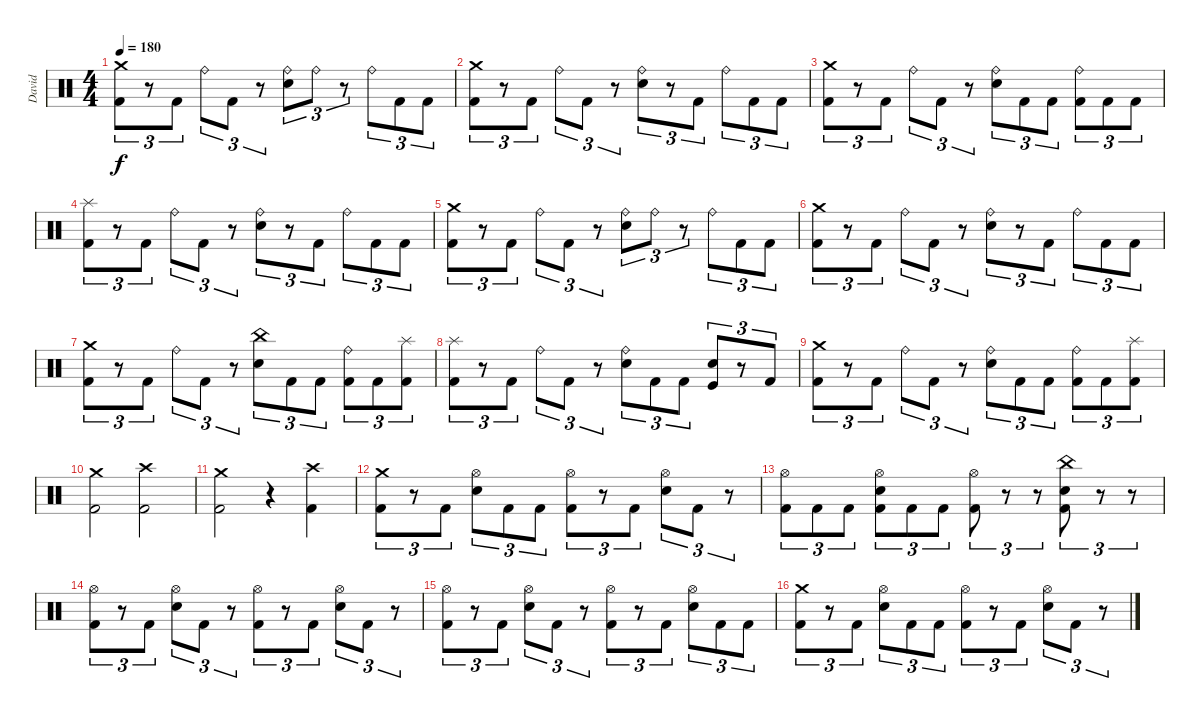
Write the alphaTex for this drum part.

\track ("David" "David") {instrument percussion}
\staff {score}
\articulation defaults
\ts (4 4)
\tempo 180
\clef neutral
\ks c
("Crash medium (hit)" "Kick (hit) 2").8{tu (3 2) dy f} r.8{tu (3 2)} "Kick (hit) 2".8{tu (3 2)} "Ride (bell)".8{tu (3 2)} "Kick (hit) 2".8{tu (3 2)} r.8{tu (3 2)} ("Ride (bell)" "Electric Snare (hit)").8{tu (3 2)} "Ride (bell)".8{tu (3 2)} r.8{tu (3 2)} "Ride (bell)".8{tu (3 2)} "Kick (hit) 2".8{tu (3 2)} "Kick (hit) 2".8{tu (3 2)} |
("Crash medium (hit)" "Kick (hit) 2").8{tu (3 2)} r.8{tu (3 2)} "Kick (hit) 2".8{tu (3 2)} "Ride (bell)".8{tu (3 2)} "Kick (hit) 2".8{tu (3 2)} r.8{tu (3 2)} ("Ride (bell)" "Electric Snare (hit)").8{tu (3 2)} r.8{tu (3 2)} "Kick (hit) 2".8{tu (3 2)} "Ride (bell)".8{tu (3 2)} "Kick (hit) 2".8{tu (3 2)} "Kick (hit) 2".8{tu (3 2)} |
("Crash medium (hit)" "Kick (hit) 2").8{tu (3 2)} r.8{tu (3 2)} "Kick (hit) 2".8{tu (3 2)} "Ride (bell)".8{tu (3 2)} "Kick (hit) 2".8{tu (3 2)} r.8{tu (3 2)} ("Ride (bell)" "Electric Snare (hit)").8{tu (3 2)} "Kick (hit) 2".8{tu (3 2)} "Kick (hit) 2".8{tu (3 2)} ("Ride (bell)" "Kick (hit) 2").8{tu (3 2)} "Kick (hit) 2".8{tu (3 2)} "Kick (hit) 2".8{tu (3 2)} |
("Splash (hit)" "Kick (hit) 2").8{tu (3 2)} r.8{tu (3 2)} "Kick (hit) 2".8{tu (3 2)} "Ride (bell)".8{tu (3 2)} "Kick (hit) 2".8{tu (3 2)} r.8{tu (3 2)} ("Ride (bell)" "Electric Snare (hit)").8{tu (3 2)} r.8{tu (3 2)} "Kick (hit) 2".8{tu (3 2)} "Ride (bell)".8{tu (3 2)} "Kick (hit) 2".8{tu (3 2)} "Kick (hit) 2".8{tu (3 2)} |
("Crash medium (hit)" "Kick (hit) 2").8{tu (3 2)} r.8{tu (3 2)} "Kick (hit) 2".8{tu (3 2)} "Ride (bell)".8{tu (3 2)} "Kick (hit) 2".8{tu (3 2)} r.8{tu (3 2)} ("Ride (bell)" "Electric Snare (hit)").8{tu (3 2)} "Ride (bell)".8{tu (3 2)} r.8{tu (3 2)} "Ride (bell)".8{tu (3 2)} "Kick (hit) 2".8{tu (3 2)} "Kick (hit) 2".8{tu (3 2)} |
("Crash medium (hit)" "Kick (hit) 2").8{tu (3 2)} r.8{tu (3 2)} "Kick (hit) 2".8{tu (3 2)} "Ride (bell)".8{tu (3 2)} "Kick (hit) 2".8{tu (3 2)} r.8{tu (3 2)} ("Ride (bell)" "Electric Snare (hit)").8{tu (3 2)} r.8{tu (3 2)} "Kick (hit) 2".8{tu (3 2)} "Ride (bell)".8{tu (3 2)} "Kick (hit) 2".8{tu (3 2)} "Kick (hit) 2".8{tu (3 2)} |
("Crash medium (hit)" "Kick (hit) 2").8{tu (3 2)} r.8{tu (3 2)} "Kick (hit) 2".8{tu (3 2)} "Ride (bell)".8{tu (3 2)} "Kick (hit) 2".8{tu (3 2)} r.8{tu (3 2)} ("China (hit)" "Electric Snare (hit)").8{tu (3 2)} "Kick (hit) 2".8{tu (3 2)} "Kick (hit) 2".8{tu (3 2)} ("Ride (bell)" "Kick (hit) 2").8{tu (3 2)} "Kick (hit) 2".8{tu (3 2)} ("Splash (hit)" "Kick (hit) 2").8{tu (3 2)} |
("Splash (hit)" "Kick (hit) 2").8{tu (3 2)} r.8{tu (3 2)} "Kick (hit) 2".8{tu (3 2)} "Ride (bell)".8{tu (3 2)} "Kick (hit) 2".8{tu (3 2)} r.8{tu (3 2)} ("Ride (bell)" "Electric Snare (hit)").8{tu (3 2)} "Kick (hit) 2".8{tu (3 2)} "Kick (hit) 2".8{tu (3 2)} ("Kick (hit)" "Electric Snare (hit)").8{tu (3 2)} r.8{tu (3 2)} "Kick (hit) 2".8{tu (3 2)} |
("Crash medium (hit)" "Kick (hit) 2").8{tu (3 2)} r.8{tu (3 2)} "Kick (hit) 2".8{tu (3 2)} "Ride (bell)".8{tu (3 2)} "Kick (hit) 2".8{tu (3 2)} r.8{tu (3 2)} ("Ride (bell)" "Electric Snare (hit)").8{tu (3 2)} "Kick (hit) 2".8{tu (3 2)} "Kick (hit) 2".8{tu (3 2)} ("Ride (bell)" "Kick (hit) 2").8{tu (3 2)} "Kick (hit) 2".8{tu (3 2)} ("Splash (hit)" "Kick (hit) 2").8{tu (3 2)} |
("Crash medium (hit)" "Kick (hit) 2").2 ("Crash high (hit)" "Kick (hit) 2").2 |
("Crash medium (hit)" "Kick (hit) 2").2 r.4 ("Crash high (hit)" "Kick (hit) 2").4 |
("Crash medium (hit)" "Kick (hit) 2").8{tu (3 2)} r.8{tu (3 2)} "Kick (hit) 2".8{tu (3 2)} ("Hi-Hat (open)" "Electric Snare (hit)").8{tu (3 2)} "Kick (hit) 2".8{tu (3 2)} "Kick (hit) 2".8{tu (3 2)} ("Hi-Hat (open)" "Kick (hit) 2").8{tu (3 2)} r.8{tu (3 2)} "Kick (hit) 2".8{tu (3 2)} ("Hi-Hat (open)" "Electric Snare (hit)").8{tu (3 2)} "Kick (hit) 2".8{tu (3 2)} r.8{tu (3 2)} |
("Hi-Hat (open)" "Kick (hit) 2").8{tu (3 2)} "Kick (hit) 2".8{tu (3 2)} "Kick (hit) 2".8{tu (3 2)} ("Hi-Hat (open)" "Electric Snare (hit)" "Kick (hit) 2").8{tu (3 2)} "Kick (hit) 2".8{tu (3 2)} "Kick (hit) 2".8{tu (3 2)} ("Hi-Hat (open)" "Kick (hit) 2").8{tu (3 2)} r.8{tu (3 2)} r.8{tu (3 2)} ("China (hit)" "Electric Snare (hit)" "Kick (hit) 2").8{tu (3 2)} r.8{tu (3 2)} r.8{tu (3 2)} |
("Hi-Hat (open)" "Kick (hit) 2").8{tu (3 2)} r.8{tu (3 2)} "Kick (hit) 2".8{tu (3 2)} ("Hi-Hat (open)" "Electric Snare (hit)").8{tu (3 2)} "Kick (hit) 2".8{tu (3 2)} r.8{tu (3 2)} ("Hi-Hat (open)" "Kick (hit) 2").8{tu (3 2)} r.8{tu (3 2)} "Kick (hit) 2".8{tu (3 2)} ("Hi-Hat (open)" "Electric Snare (hit)").8{tu (3 2)} "Kick (hit) 2".8{tu (3 2)} r.8{tu (3 2)} |
("Hi-Hat (open)" "Kick (hit) 2").8{tu (3 2)} r.8{tu (3 2)} "Kick (hit) 2".8{tu (3 2)} ("Hi-Hat (open)" "Electric Snare (hit)").8{tu (3 2)} "Kick (hit) 2".8{tu (3 2)} r.8{tu (3 2)} ("Hi-Hat (open)" "Kick (hit) 2").8{tu (3 2)} r.8{tu (3 2)} "Kick (hit) 2".8{tu (3 2)} ("Hi-Hat (open)" "Electric Snare (hit)").8{tu (3 2)} "Kick (hit) 2".8{tu (3 2)} "Kick (hit) 2".8{tu (3 2)} |
("Crash medium (hit)" "Kick (hit) 2").8{tu (3 2)} r.8{tu (3 2)} "Kick (hit) 2".8{tu (3 2)} ("Hi-Hat (open)" "Electric Snare (hit)").8{tu (3 2)} "Kick (hit) 2".8{tu (3 2)} "Kick (hit) 2".8{tu (3 2)} ("Hi-Hat (open)" "Kick (hit) 2").8{tu (3 2)} r.8{tu (3 2)} "Kick (hit) 2".8{tu (3 2)} ("Hi-Hat (open)" "Electric Snare (hit)").8{tu (3 2)} "Kick (hit) 2".8{tu (3 2)} r.8{tu (3 2)}
